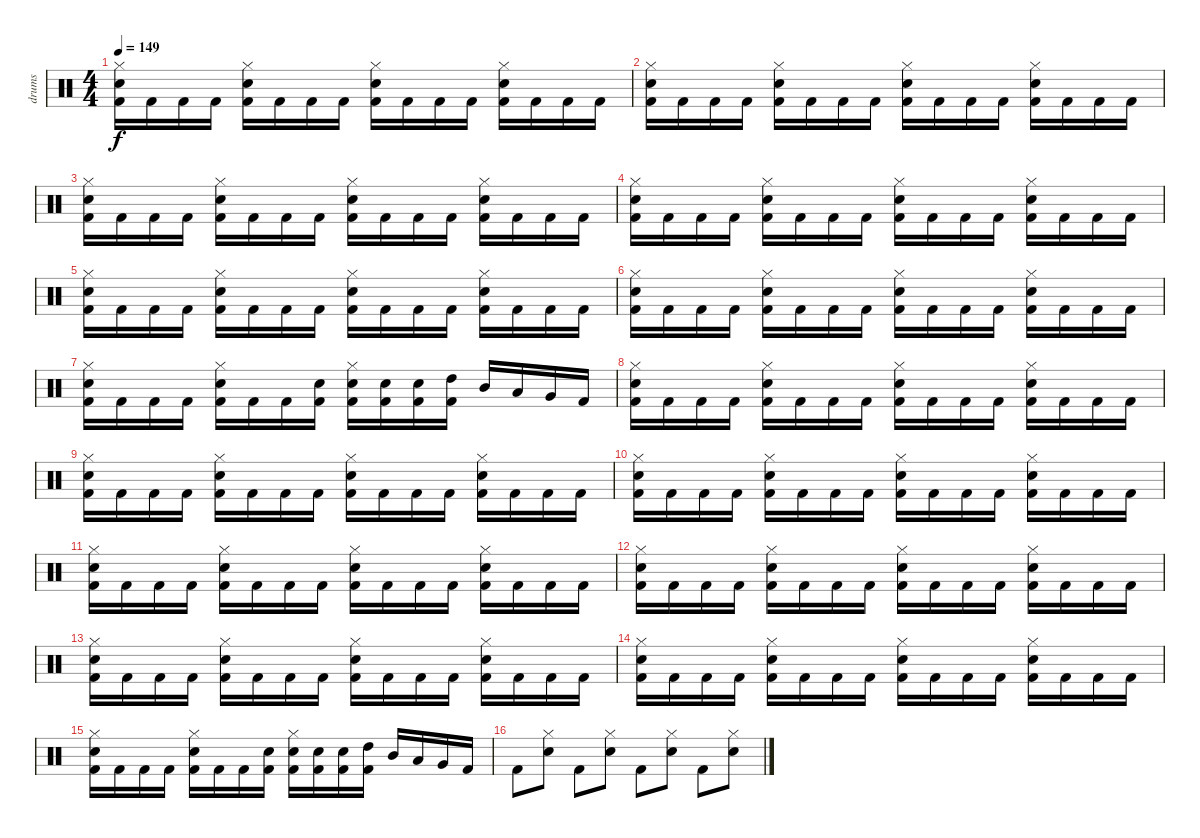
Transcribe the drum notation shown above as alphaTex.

\track ("drums" "drums") {instrument percussion}
\staff {score}
\articulation defaults
\ts (4 4)
\tempo 149
\clef neutral
\ks c
("Kick (hit) 2" "Electric Snare (hit)" "Hi-Hat (closed)").16{dy f} "Kick (hit) 2".16 "Kick (hit) 2".16 "Kick (hit) 2".16 ("Kick (hit) 2" "Electric Snare (hit)" "Hi-Hat (closed)").16 "Kick (hit) 2".16 "Kick (hit) 2".16 "Kick (hit) 2".16 ("Kick (hit) 2" "Electric Snare (hit)" "Hi-Hat (closed)").16 "Kick (hit) 2".16 "Kick (hit) 2".16 "Kick (hit) 2".16 ("Kick (hit) 2" "Electric Snare (hit)" "Hi-Hat (closed)").16 "Kick (hit) 2".16 "Kick (hit) 2".16 "Kick (hit) 2".16 |
("Kick (hit) 2" "Electric Snare (hit)" "Hi-Hat (closed)").16 "Kick (hit) 2".16 "Kick (hit) 2".16 "Kick (hit) 2".16 ("Kick (hit) 2" "Electric Snare (hit)" "Hi-Hat (closed)").16 "Kick (hit) 2".16 "Kick (hit) 2".16 "Kick (hit) 2".16 ("Kick (hit) 2" "Electric Snare (hit)" "Hi-Hat (closed)").16 "Kick (hit) 2".16 "Kick (hit) 2".16 "Kick (hit) 2".16 ("Kick (hit) 2" "Electric Snare (hit)" "Hi-Hat (closed)").16 "Kick (hit) 2".16 "Kick (hit) 2".16 "Kick (hit) 2".16 |
("Kick (hit) 2" "Electric Snare (hit)" "Hi-Hat (closed)").16 "Kick (hit) 2".16 "Kick (hit) 2".16 "Kick (hit) 2".16 ("Kick (hit) 2" "Electric Snare (hit)" "Hi-Hat (closed)").16 "Kick (hit) 2".16 "Kick (hit) 2".16 "Kick (hit) 2".16 ("Kick (hit) 2" "Electric Snare (hit)" "Hi-Hat (closed)").16 "Kick (hit) 2".16 "Kick (hit) 2".16 "Kick (hit) 2".16 ("Kick (hit) 2" "Electric Snare (hit)" "Hi-Hat (closed)").16 "Kick (hit) 2".16 "Kick (hit) 2".16 "Kick (hit) 2".16 |
("Kick (hit) 2" "Electric Snare (hit)" "Hi-Hat (closed)").16 "Kick (hit) 2".16 "Kick (hit) 2".16 "Kick (hit) 2".16 ("Kick (hit) 2" "Electric Snare (hit)" "Hi-Hat (closed)").16 "Kick (hit) 2".16 "Kick (hit) 2".16 "Kick (hit) 2".16 ("Kick (hit) 2" "Electric Snare (hit)" "Hi-Hat (closed)").16 "Kick (hit) 2".16 "Kick (hit) 2".16 "Kick (hit) 2".16 ("Kick (hit) 2" "Electric Snare (hit)" "Hi-Hat (closed)").16 "Kick (hit) 2".16 "Kick (hit) 2".16 "Kick (hit) 2".16 |
("Kick (hit) 2" "Electric Snare (hit)" "Hi-Hat (closed)").16 "Kick (hit) 2".16 "Kick (hit) 2".16 "Kick (hit) 2".16 ("Kick (hit) 2" "Electric Snare (hit)" "Hi-Hat (closed)").16 "Kick (hit) 2".16 "Kick (hit) 2".16 "Kick (hit) 2".16 ("Kick (hit) 2" "Electric Snare (hit)" "Hi-Hat (closed)").16 "Kick (hit) 2".16 "Kick (hit) 2".16 "Kick (hit) 2".16 ("Kick (hit) 2" "Electric Snare (hit)" "Hi-Hat (closed)").16 "Kick (hit) 2".16 "Kick (hit) 2".16 "Kick (hit) 2".16 |
("Kick (hit) 2" "Electric Snare (hit)" "Hi-Hat (closed)").16 "Kick (hit) 2".16 "Kick (hit) 2".16 "Kick (hit) 2".16 ("Kick (hit) 2" "Electric Snare (hit)" "Hi-Hat (closed)").16 "Kick (hit) 2".16 "Kick (hit) 2".16 "Kick (hit) 2".16 ("Kick (hit) 2" "Electric Snare (hit)" "Hi-Hat (closed)").16 "Kick (hit) 2".16 "Kick (hit) 2".16 "Kick (hit) 2".16 ("Kick (hit) 2" "Electric Snare (hit)" "Hi-Hat (closed)").16 "Kick (hit) 2".16 "Kick (hit) 2".16 "Kick (hit) 2".16 |
("Kick (hit) 2" "Electric Snare (hit)" "Hi-Hat (closed)").16 "Kick (hit) 2".16 "Kick (hit) 2".16 "Kick (hit) 2".16 ("Kick (hit) 2" "Electric Snare (hit)" "Hi-Hat (closed)").16 "Kick (hit) 2".16 "Kick (hit) 2".16 ("Kick (hit) 2" "Electric Snare (hit)").16 ("Kick (hit) 2" "Electric Snare (hit)" "Hi-Hat (closed)").16 ("Kick (hit) 2" "Electric Snare (hit)").16 ("Kick (hit) 2" "Electric Snare (hit)").16 ("Kick (hit) 2" "High Tom (hit)").16 "Mid Tom (hit)".16 "Low Tom (hit)".16 "Very Low Tom (hit)".16 "Kick (hit) 2".16 |
("Kick (hit) 2" "Electric Snare (hit)" "Hi-Hat (closed)").16 "Kick (hit) 2".16 "Kick (hit) 2".16 "Kick (hit) 2".16 ("Kick (hit) 2" "Electric Snare (hit)" "Hi-Hat (closed)").16 "Kick (hit) 2".16 "Kick (hit) 2".16 "Kick (hit) 2".16 ("Kick (hit) 2" "Electric Snare (hit)" "Hi-Hat (closed)").16 "Kick (hit) 2".16 "Kick (hit) 2".16 "Kick (hit) 2".16 ("Kick (hit) 2" "Electric Snare (hit)" "Hi-Hat (closed)").16 "Kick (hit) 2".16 "Kick (hit) 2".16 "Kick (hit) 2".16 |
("Kick (hit) 2" "Electric Snare (hit)" "Hi-Hat (closed)").16 "Kick (hit) 2".16 "Kick (hit) 2".16 "Kick (hit) 2".16 ("Kick (hit) 2" "Electric Snare (hit)" "Hi-Hat (closed)").16 "Kick (hit) 2".16 "Kick (hit) 2".16 "Kick (hit) 2".16 ("Kick (hit) 2" "Electric Snare (hit)" "Hi-Hat (closed)").16 "Kick (hit) 2".16 "Kick (hit) 2".16 "Kick (hit) 2".16 ("Kick (hit) 2" "Electric Snare (hit)" "Hi-Hat (closed)").16 "Kick (hit) 2".16 "Kick (hit) 2".16 "Kick (hit) 2".16 |
("Kick (hit) 2" "Electric Snare (hit)" "Hi-Hat (closed)").16 "Kick (hit) 2".16 "Kick (hit) 2".16 "Kick (hit) 2".16 ("Kick (hit) 2" "Electric Snare (hit)" "Hi-Hat (closed)").16 "Kick (hit) 2".16 "Kick (hit) 2".16 "Kick (hit) 2".16 ("Kick (hit) 2" "Electric Snare (hit)" "Hi-Hat (closed)").16 "Kick (hit) 2".16 "Kick (hit) 2".16 "Kick (hit) 2".16 ("Kick (hit) 2" "Electric Snare (hit)" "Hi-Hat (closed)").16 "Kick (hit) 2".16 "Kick (hit) 2".16 "Kick (hit) 2".16 |
("Kick (hit) 2" "Electric Snare (hit)" "Hi-Hat (closed)").16 "Kick (hit) 2".16 "Kick (hit) 2".16 "Kick (hit) 2".16 ("Kick (hit) 2" "Electric Snare (hit)" "Hi-Hat (closed)").16 "Kick (hit) 2".16 "Kick (hit) 2".16 "Kick (hit) 2".16 ("Kick (hit) 2" "Electric Snare (hit)" "Hi-Hat (closed)").16 "Kick (hit) 2".16 "Kick (hit) 2".16 "Kick (hit) 2".16 ("Kick (hit) 2" "Electric Snare (hit)" "Hi-Hat (closed)").16 "Kick (hit) 2".16 "Kick (hit) 2".16 "Kick (hit) 2".16 |
("Kick (hit) 2" "Electric Snare (hit)" "Hi-Hat (closed)").16 "Kick (hit) 2".16 "Kick (hit) 2".16 "Kick (hit) 2".16 ("Kick (hit) 2" "Electric Snare (hit)" "Hi-Hat (closed)").16 "Kick (hit) 2".16 "Kick (hit) 2".16 "Kick (hit) 2".16 ("Kick (hit) 2" "Electric Snare (hit)" "Hi-Hat (closed)").16 "Kick (hit) 2".16 "Kick (hit) 2".16 "Kick (hit) 2".16 ("Kick (hit) 2" "Electric Snare (hit)" "Hi-Hat (closed)").16 "Kick (hit) 2".16 "Kick (hit) 2".16 "Kick (hit) 2".16 |
("Kick (hit) 2" "Electric Snare (hit)" "Hi-Hat (closed)").16 "Kick (hit) 2".16 "Kick (hit) 2".16 "Kick (hit) 2".16 ("Kick (hit) 2" "Electric Snare (hit)" "Hi-Hat (closed)").16 "Kick (hit) 2".16 "Kick (hit) 2".16 "Kick (hit) 2".16 ("Kick (hit) 2" "Electric Snare (hit)" "Hi-Hat (closed)").16 "Kick (hit) 2".16 "Kick (hit) 2".16 "Kick (hit) 2".16 ("Kick (hit) 2" "Electric Snare (hit)" "Hi-Hat (closed)").16 "Kick (hit) 2".16 "Kick (hit) 2".16 "Kick (hit) 2".16 |
("Kick (hit) 2" "Electric Snare (hit)" "Hi-Hat (closed)").16 "Kick (hit) 2".16 "Kick (hit) 2".16 "Kick (hit) 2".16 ("Kick (hit) 2" "Electric Snare (hit)" "Hi-Hat (closed)").16 "Kick (hit) 2".16 "Kick (hit) 2".16 "Kick (hit) 2".16 ("Kick (hit) 2" "Electric Snare (hit)" "Hi-Hat (closed)").16 "Kick (hit) 2".16 "Kick (hit) 2".16 "Kick (hit) 2".16 ("Kick (hit) 2" "Electric Snare (hit)" "Hi-Hat (closed)").16 "Kick (hit) 2".16 "Kick (hit) 2".16 "Kick (hit) 2".16 |
("Kick (hit) 2" "Electric Snare (hit)" "Hi-Hat (closed)").16 "Kick (hit) 2".16 "Kick (hit) 2".16 "Kick (hit) 2".16 ("Kick (hit) 2" "Electric Snare (hit)" "Hi-Hat (closed)").16 "Kick (hit) 2".16 "Kick (hit) 2".16 ("Kick (hit) 2" "Electric Snare (hit)").16 ("Kick (hit) 2" "Electric Snare (hit)" "Hi-Hat (closed)").16 ("Kick (hit) 2" "Electric Snare (hit)").16 ("Kick (hit) 2" "Electric Snare (hit)").16 ("Kick (hit) 2" "High Tom (hit)").16 "Mid Tom (hit)".16 "Low Tom (hit)".16 "Very Low Tom (hit)".16 "Kick (hit) 2".16 |
"Kick (hit) 2".8 ("Electric Snare (hit)" "Hi-Hat (closed)").8 "Kick (hit) 2".8 ("Electric Snare (hit)" "Hi-Hat (closed)").8 "Kick (hit) 2".8 ("Electric Snare (hit)" "Hi-Hat (closed)").8 "Kick (hit) 2".8 ("Electric Snare (hit)" "Hi-Hat (closed)").8
